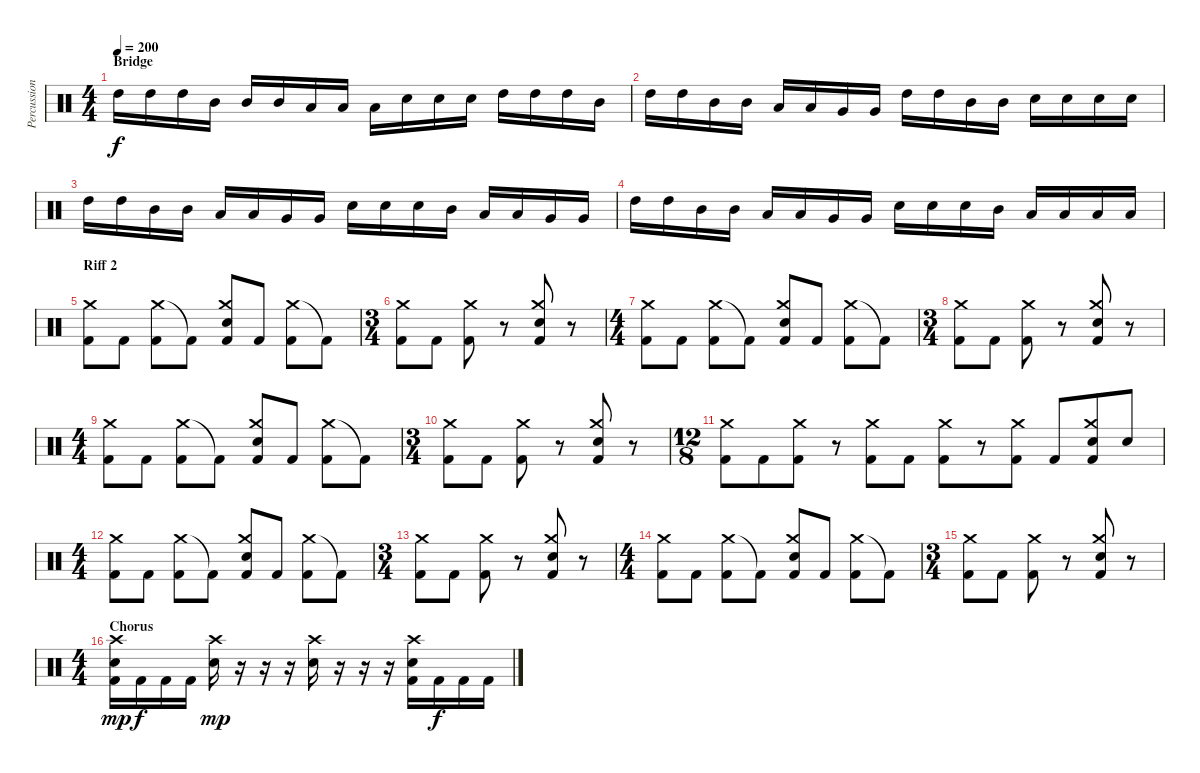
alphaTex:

\track ("Percussions ( Brylle )" "Percussion") {instrument percussion}
\staff {score}
\articulation defaults
\ts (4 4)
\section ("" "Bridge")
\tempo 200
\clef neutral
\ks c "High Tom (hit)".16{dy f} "High Tom (hit)".16 "High Tom (hit)".16 "Mid Tom (hit)".16 "Mid Tom (hit)".16 "Mid Tom (hit)".16 "Low Tom (hit)".16 "Low Tom (hit)".16 "Low Tom (hit)".16 "Electric Snare (hit)".16 "Electric Snare (hit)".16 "Electric Snare (hit)".16 "High Tom (hit)".16 "High Tom (hit)".16 "High Tom (hit)".16 "Mid Tom (hit)".16
|
"High Tom (hit)".16 "High Tom (hit)".16 "Mid Tom (hit)".16 "Mid Tom (hit)".16 "Low Tom (hit)".16 "Low Tom (hit)".16 "Very Low Tom (hit)".16 "Very Low Tom (hit)".16 "High Tom (hit)".16 "High Tom (hit)".16 "Mid Tom (hit)".16 "Mid Tom (hit)".16 "Electric Snare (hit)".16 "Electric Snare (hit)".16 "Electric Snare (hit)".16 "Electric Snare (hit)".16 |
"High Tom (hit)".16 "High Tom (hit)".16 "Mid Tom (hit)".16 "Mid Tom (hit)".16 "Low Tom (hit)".16 "Low Tom (hit)".16 "Very Low Tom (hit)".16 "Very Low Tom (hit)".16 "Electric Snare (hit)".16 "Electric Snare (hit)".16 "Electric Snare (hit)".16 "Mid Tom (hit)".16 "Low Tom (hit)".16 "Low Tom (hit)".16 "Very Low Tom (hit)".16 "Very Low Tom (hit)".16 |
"High Tom (hit)".16 "High Tom (hit)".16 "Mid Tom (hit)".16 "Mid Tom (hit)".16 "Low Tom (hit)".16 "Low Tom (hit)".16 "Very Low Tom (hit)".16 "Very Low Tom (hit)".16 "Electric Snare (hit)".16 "Electric Snare (hit)".16 "Electric Snare (hit)".16 "Mid Tom (hit)".16 "Low Tom (hit)".16 "Low Tom (hit)".16 "Low Tom (hit)".16 "Low Tom (hit)".16 |
\section ("" "Riff 2")
("Crash medium (hit)" "Kick (hit) 2").8 "Kick (hit) 2".8 ("Crash medium (hit)" "Kick (hit) 2").8 "Kick (hit) 2"{t}.8 ("Crash medium (hit)" "Electric Snare (hit)" "Kick (hit) 2").8 "Kick (hit) 2".8 ("Crash medium (hit)" "Kick (hit) 2").8 "Kick (hit) 2"{t}.8 |
\ts (3 4)
("Crash medium (hit)" "Kick (hit) 2").8 "Kick (hit) 2".8 ("Crash medium (hit)" "Kick (hit) 2").8 r.8 ("Crash medium (hit)" "Electric Snare (hit)" "Kick (hit) 2").8 r.8 |
\ts (4 4)
("Crash medium (hit)" "Kick (hit) 2").8 "Kick (hit) 2".8 ("Crash medium (hit)" "Kick (hit) 2").8 "Kick (hit) 2"{t}.8 ("Crash medium (hit)" "Electric Snare (hit)" "Kick (hit) 2").8 "Kick (hit) 2".8 ("Crash medium (hit)" "Kick (hit) 2").8 "Kick (hit) 2"{t}.8 |
\ts (3 4)
("Crash medium (hit)" "Kick (hit) 2").8 "Kick (hit) 2".8 ("Crash medium (hit)" "Kick (hit) 2").8 r.8 ("Crash medium (hit)" "Electric Snare (hit)" "Kick (hit) 2").8 r.8 |
\ts (4 4)
("Crash medium (hit)" "Kick (hit) 2").8 "Kick (hit) 2".8 ("Crash medium (hit)" "Kick (hit) 2").8 "Kick (hit) 2"{t}.8 ("Crash medium (hit)" "Electric Snare (hit)" "Kick (hit) 2").8 "Kick (hit) 2".8 ("Crash medium (hit)" "Kick (hit) 2").8 "Kick (hit) 2"{t}.8 |
\ts (3 4)
("Crash medium (hit)" "Kick (hit) 2").8 "Kick (hit) 2".8 ("Crash medium (hit)" "Kick (hit) 2").8 r.8 ("Crash medium (hit)" "Electric Snare (hit)" "Kick (hit) 2").8 r.8 |
\ts (12 8)
("Crash medium (hit)" "Kick (hit) 2").8 "Kick (hit) 2".8 ("Crash medium (hit)" "Kick (hit) 2").8 r.8 ("Crash medium (hit)" "Kick (hit) 2").8 "Kick (hit) 2".8 ("Crash medium (hit)" "Kick (hit) 2").8 r.8 ("Crash medium (hit)" "Kick (hit) 2").8 "Kick (hit) 2".8 ("Crash medium (hit)" "Electric Snare (hit)" "Kick (hit) 2").8 "Electric Snare (hit)".8 |
\ts (4 4)
("Crash medium (hit)" "Kick (hit) 2").8 "Kick (hit) 2".8 ("Crash medium (hit)" "Kick (hit) 2").8 "Kick (hit) 2"{t}.8 ("Crash medium (hit)" "Electric Snare (hit)" "Kick (hit) 2").8 "Kick (hit) 2".8 ("Crash medium (hit)" "Kick (hit) 2").8 "Kick (hit) 2"{t}.8 |
\ts (3 4)
("Crash medium (hit)" "Kick (hit) 2").8 "Kick (hit) 2".8 ("Crash medium (hit)" "Kick (hit) 2").8 r.8 ("Crash medium (hit)" "Electric Snare (hit)" "Kick (hit) 2").8 r.8 |
\ts (4 4)
("Crash medium (hit)" "Kick (hit) 2").8 "Kick (hit) 2".8 ("Crash medium (hit)" "Kick (hit) 2").8 "Kick (hit) 2"{t}.8 ("Crash medium (hit)" "Electric Snare (hit)" "Kick (hit) 2").8 "Kick (hit) 2".8 ("Crash medium (hit)" "Kick (hit) 2").8 "Kick (hit) 2"{t}.8 |
\ts (3 4)
("Crash medium (hit)" "Kick (hit) 2").8 "Kick (hit) 2".8 ("Crash medium (hit)" "Kick (hit) 2").8 r.8 ("Crash medium (hit)" "Electric Snare (hit)" "Kick (hit) 2").8 r.8 |
\ts (4 4)
\section ("" "Chorus")
("Crash high (hit)" "Electric Snare (hit)" "Kick (hit) 2").16{dy mp} "Kick (hit) 2".16{dy f} "Kick (hit) 2".16 "Kick (hit) 2".16 ("Crash high (hit)" "Electric Snare (hit)").16{dy mp} r.16 r.16 r.16 ("Crash high (hit)" "Electric Snare (hit)").16 r.16 r.16 r.16 ("Crash high (hit)" "Electric Snare (hit)" "Kick (hit) 2").16 "Kick (hit) 2".16{dy f} "Kick (hit) 2".16 "Kick (hit) 2".16
